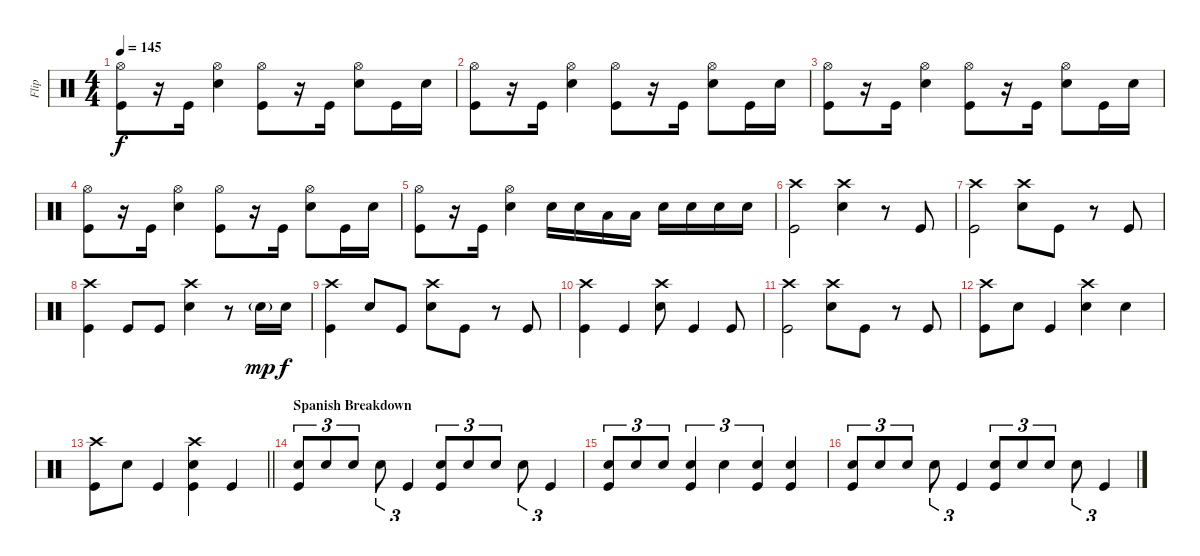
\track ("Flip" "Flip") {instrument percussion}
\staff {score}
\articulation defaults
\ts (4 4)
\tempo 145
\clef neutral
\ks c
("Hi-Hat (open)" "Kick (hit)").8{dy f} r.16 "Kick (hit)".16 ("Hi-Hat (open)" "Snare (hit) 2").4 ("Hi-Hat (open)" "Kick (hit)").8 r.16 "Kick (hit)".16 ("Hi-Hat (open)" "Snare (hit) 2").8 "Kick (hit)".16 "Snare (hit) 2".16 |
("Hi-Hat (open)" "Kick (hit)").8 r.16 "Kick (hit)".16 ("Hi-Hat (open)" "Snare (hit) 2").4 ("Hi-Hat (open)" "Kick (hit)").8 r.16 "Kick (hit)".16 ("Hi-Hat (open)" "Snare (hit) 2").8 "Kick (hit)".16 "Snare (hit) 2".16 |
("Hi-Hat (open)" "Kick (hit)").8 r.16 "Kick (hit)".16 ("Hi-Hat (open)" "Snare (hit) 2").4 ("Hi-Hat (open)" "Kick (hit)").8 r.16 "Kick (hit)".16 ("Hi-Hat (open)" "Snare (hit) 2").8 "Kick (hit)".16 "Snare (hit) 2".16 |
("Hi-Hat (open)" "Kick (hit)").8 r.16 "Kick (hit)".16 ("Hi-Hat (open)" "Snare (hit) 2").4 ("Hi-Hat (open)" "Kick (hit)").8 r.16 "Kick (hit)".16 ("Hi-Hat (open)" "Snare (hit) 2").8 "Kick (hit)".16 "Snare (hit) 2".16 |
("Hi-Hat (open)" "Kick (hit)").8 r.16 "Kick (hit)".16 ("Hi-Hat (open)" "Snare (hit) 2").4 "Snare (hit) 2".16 "Snare (hit) 2".16 "Low Tom (hit)".16 "Low Tom (hit)".16 "Snare (hit) 2".16 "Snare (hit) 2".16 "Snare (hit) 2".16 "Snare (hit) 2".16 |
("Crash high (hit)" "Kick (hit)").2 ("Crash high (hit)" "Snare (hit) 2").4 r.8 "Kick (hit)".8 |
("Crash high (hit)" "Kick (hit)").2 ("Crash high (hit)" "Snare (hit) 2").8 "Kick (hit)".8 r.8 "Kick (hit)".8 |
("Crash high (hit)" "Kick (hit)").4 "Kick (hit)".8 "Kick (hit)".8 ("Crash high (hit)" "Snare (hit) 2").4 r.8 "Snare (hit) 2"{g}.16{dy mp} "Snare (hit) 2".16{dy f} |
("Crash high (hit)" "Kick (hit)").4 "Snare (hit) 2".8 "Kick (hit)".8 ("Crash high (hit)" "Snare (hit) 2").8 "Kick (hit)".8 r.8 "Kick (hit)".8 |
("Crash high (hit)" "Kick (hit)").4 "Kick (hit)".4 ("Crash high (hit)" "Snare (hit) 2").8 "Kick (hit)".4 "Kick (hit)".8 |
("Crash high (hit)" "Kick (hit)").2 ("Crash high (hit)" "Snare (hit) 2").8 "Kick (hit)".8 r.8 "Kick (hit)".8 |
("Crash high (hit)" "Kick (hit)").8 "Snare (hit) 2".8 "Kick (hit)".4 ("Crash high (hit)" "Snare (hit) 2").4 "Snare (hit) 2".4 |
\barLineRight lightlight
("Crash high (hit)" "Kick (hit)").8 "Snare (hit) 2".8 "Kick (hit)".4 ("Crash high (hit)" "Snare (hit) 2" "Kick (hit)").4 "Kick (hit)".4 |
\section ("" "Spanish Breakdown")
("Snare (hit) 2" "Kick (hit)").8{tu (3 2)} "Snare (hit) 2".8{tu (3 2)} "Snare (hit) 2".8{tu (3 2)} "Snare (hit) 2".8{tu (3 2)} "Kick (hit)".4{tu (3 2)} ("Snare (hit) 2" "Kick (hit)").8{tu (3 2)} "Snare (hit) 2".8{tu (3 2)} "Snare (hit) 2".8{tu (3 2)} "Snare (hit) 2".8{tu (3 2)} "Kick (hit)".4{tu (3 2)} |
("Snare (hit) 2" "Kick (hit)").8{tu (3 2)} "Snare (hit) 2".8{tu (3 2)} "Snare (hit) 2".8{tu (3 2)} ("Snare (hit) 2" "Kick (hit)").4{tu (3 2)} "Snare (hit) 2".4{tu (3 2)} ("Snare (hit) 2" "Kick (hit)").4{tu (3 2)} ("Snare (hit) 2" "Kick (hit)").4 |
("Snare (hit) 2" "Kick (hit)").8{tu (3 2)} "Snare (hit) 2".8{tu (3 2)} "Snare (hit) 2".8{tu (3 2)} "Snare (hit) 2".8{tu (3 2)} "Kick (hit)".4{tu (3 2)} ("Snare (hit) 2" "Kick (hit)").8{tu (3 2)} "Snare (hit) 2".8{tu (3 2)} "Snare (hit) 2".8{tu (3 2)} "Snare (hit) 2".8{tu (3 2)} "Kick (hit)".4{tu (3 2)}
